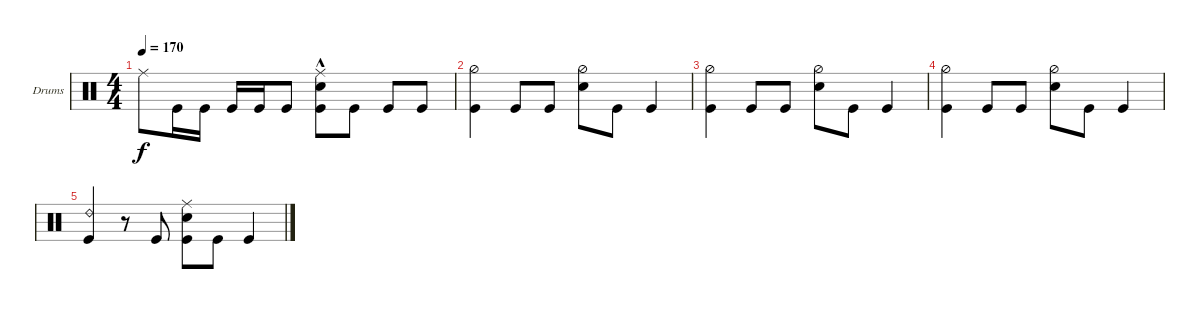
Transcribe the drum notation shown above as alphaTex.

\defaultSystemsLayout 4
\bracketExtendMode groupsimilarinstruments
\firstSystemTrackNameOrientation horizontal
\otherSystemsTrackNameOrientation horizontal
\track ("Drumkit" "Drums") {instrument percussion}
\staff {score}
\articulation defaults
\ts (4 4)
\tempo 170
\clef neutral
\ks c "Ride (middle)".8{dy f} "Kick (hit)".16 "Kick (hit)".16 "Kick (hit)".16 "Kick (hit)".16 "Kick (hit)".8
("Kick (hit)" "Snare (hit) 2"{hac} "Ride (middle)").8 "Kick (hit)".8 "Kick (hit)".8 "Kick (hit)".8 |
("Hi-Hat (half)" "Kick (hit)").4 "Kick (hit)".8 "Kick (hit)".8 ("Snare (hit) 2" "Hi-Hat (half)").8 "Kick (hit)".8 "Kick (hit)".4 |
("Hi-Hat (half)" "Kick (hit)").4 "Kick (hit)".8 "Kick (hit)".8 ("Snare (hit) 2" "Hi-Hat (half)").8 "Kick (hit)".8 "Kick (hit)".4 |
("Hi-Hat (half)" "Kick (hit)").4 "Kick (hit)".8 "Kick (hit)".8 ("Snare (hit) 2" "Hi-Hat (half)").8 "Kick (hit)".8 "Kick (hit)".4 |
("Ride (bell) 2" "Kick (hit)").4 r.8 "Kick (hit)".8 ("Kick (hit)" "Snare (hit) 2" "Ride (middle)").8 "Kick (hit)".8 "Kick (hit)".4
